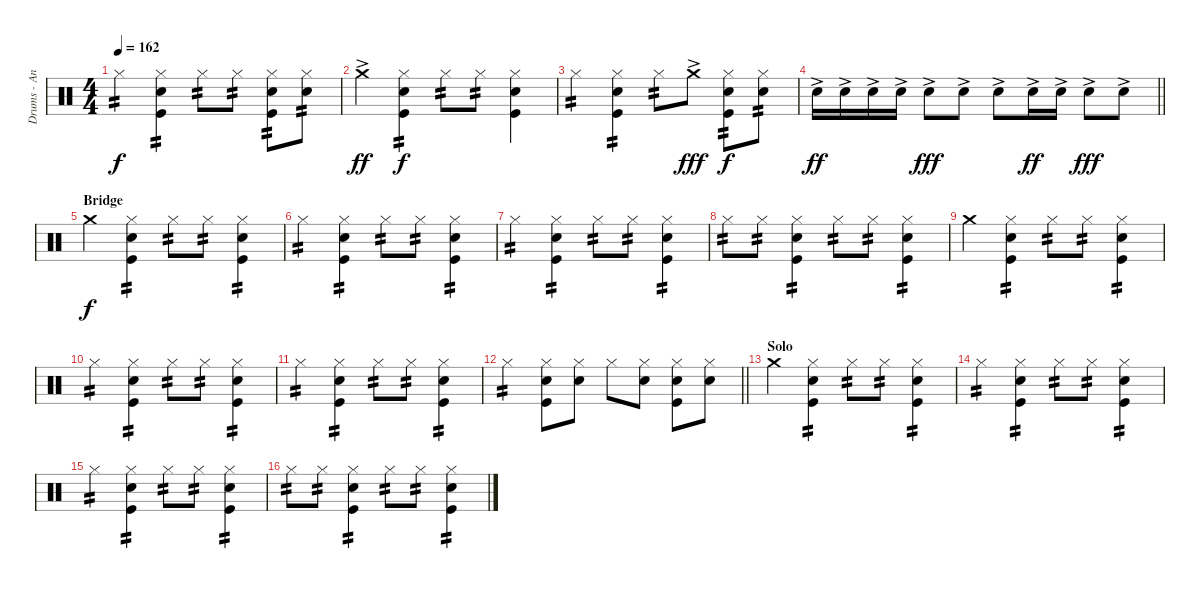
\track ("Drums - Andriushkin" "Drums - An") {instrument percussion}
\staff {score}
\articulation defaults
\ts (4 4)
\tempo 162
\clef neutral
\ks c "Hi-Hat (closed)".4{tp 2 dy f}
("Hi-Hat (closed)" "Electric Snare (hit)" "Kick (hit)").4{tp 2} "Hi-Hat (closed)".8{tp 2} "Hi-Hat (closed)".8{tp 2} ("Hi-Hat (closed)" "Electric Snare (hit)" "Kick (hit)").8{tp 2} ("Hi-Hat (closed)" "Electric Snare (hit)").8{tp 2} |
"Crash medium (hit)"{ac}.4{dy ff} ("Hi-Hat (closed)" "Electric Snare (hit)" "Kick (hit)").4{tp 2 dy f} "Hi-Hat (closed)".8{tp 2} "Hi-Hat (closed)".8{tp 2} ("Hi-Hat (closed)" "Electric Snare (hit)" "Kick (hit)").4 |
"Hi-Hat (closed)".4{tp 2} ("Hi-Hat (closed)" "Electric Snare (hit)" "Kick (hit)").4{tp 2} "Hi-Hat (closed)".8{tp 2} "Crash medium (hit)"{ac}.8{dy fff} ("Hi-Hat (closed)" "Electric Snare (hit)" "Kick (hit)").8{tp 2 dy f} ("Hi-Hat (closed)" "Electric Snare (hit)").8{tp 2} |
\barLineRight lightlight "Electric Snare (hit)"{ac}.16{dy ff} "Electric Snare (hit)"{ac}.16 "Electric Snare (hit)"{ac}.16 "Electric Snare (hit)"{ac}.16 "Electric Snare (hit)"{ac}.8{dy fff} "Electric Snare (hit)"{ac}.8 "Electric Snare (hit)"{ac}.8 "Electric Snare (hit)"{ac}.16{dy ff} "Electric Snare (hit)"{ac}.16 "Electric Snare (hit)"{ac}.8{dy fff} "Electric Snare (hit)"{ac}.8
|
\section ("" "Bridge")
"Crash medium (hit)".4{dy f} ("Hi-Hat (closed)" "Electric Snare (hit)" "Kick (hit)").4{tp 2} "Hi-Hat (closed)".8{tp 2} "Hi-Hat (closed)".8{tp 2} ("Hi-Hat (closed)" "Electric Snare (hit)" "Kick (hit)").4{tp 2} |
"Hi-Hat (closed)".4{tp 2} ("Hi-Hat (closed)" "Electric Snare (hit)" "Kick (hit)").4{tp 2} "Hi-Hat (closed)".8{tp 2} "Hi-Hat (closed)".8{tp 2} ("Hi-Hat (closed)" "Electric Snare (hit)" "Kick (hit)").4{tp 2} |
"Hi-Hat (closed)".4{tp 2} ("Hi-Hat (closed)" "Electric Snare (hit)" "Kick (hit)").4{tp 2} "Hi-Hat (closed)".8{tp 2} "Hi-Hat (closed)".8{tp 2} ("Hi-Hat (closed)" "Electric Snare (hit)" "Kick (hit)").4{tp 2} |
"Hi-Hat (closed)".8{tp 2} "Hi-Hat (closed)".8{tp 2} ("Hi-Hat (closed)" "Electric Snare (hit)" "Kick (hit)").4{tp 2} "Hi-Hat (closed)".8{tp 2} "Hi-Hat (closed)".8{tp 2} ("Hi-Hat (closed)" "Electric Snare (hit)" "Kick (hit)").4{tp 2} |
"Crash medium (hit)".4 ("Hi-Hat (closed)" "Electric Snare (hit)" "Kick (hit)").4{tp 2} "Hi-Hat (closed)".8{tp 2} "Hi-Hat (closed)".8{tp 2} ("Hi-Hat (closed)" "Electric Snare (hit)" "Kick (hit)").4{tp 2} |
"Hi-Hat (closed)".4{tp 2} ("Hi-Hat (closed)" "Electric Snare (hit)" "Kick (hit)").4{tp 2} "Hi-Hat (closed)".8{tp 2} "Hi-Hat (closed)".8{tp 2} ("Hi-Hat (closed)" "Electric Snare (hit)" "Kick (hit)").4{tp 2} |
"Hi-Hat (closed)".4{tp 2} ("Hi-Hat (closed)" "Electric Snare (hit)" "Kick (hit)").4{tp 2} "Hi-Hat (closed)".8{tp 2} "Hi-Hat (closed)".8{tp 2} ("Hi-Hat (closed)" "Electric Snare (hit)" "Kick (hit)").4{tp 2} |
\barLineRight lightlight "Hi-Hat (closed)".4{tp 2}
("Hi-Hat (closed)" "Electric Snare (hit)" "Kick (hit)").8 ("Hi-Hat (closed)" "Electric Snare (hit)").8 "Hi-Hat (closed)".8 ("Hi-Hat (closed)" "Electric Snare (hit)").8 ("Hi-Hat (closed)" "Electric Snare (hit)" "Kick (hit)").8 ("Hi-Hat (closed)" "Electric Snare (hit)").8 |
\section ("" "Solo")
"Crash medium (hit)".4 ("Hi-Hat (closed)" "Electric Snare (hit)" "Kick (hit)").4{tp 2} "Hi-Hat (closed)".8{tp 2} "Hi-Hat (closed)".8{tp 2} ("Hi-Hat (closed)" "Electric Snare (hit)" "Kick (hit)").4{tp 2} |
"Hi-Hat (closed)".4{tp 2} ("Hi-Hat (closed)" "Electric Snare (hit)" "Kick (hit)").4{tp 2} "Hi-Hat (closed)".8{tp 2} "Hi-Hat (closed)".8{tp 2} ("Hi-Hat (closed)" "Electric Snare (hit)" "Kick (hit)").4{tp 2} |
"Hi-Hat (closed)".4{tp 2} ("Hi-Hat (closed)" "Electric Snare (hit)" "Kick (hit)").4{tp 2} "Hi-Hat (closed)".8{tp 2} "Hi-Hat (closed)".8{tp 2} ("Hi-Hat (closed)" "Electric Snare (hit)" "Kick (hit)").4{tp 2} |
"Hi-Hat (closed)".8{tp 2} "Hi-Hat (closed)".8{tp 2} ("Hi-Hat (closed)" "Electric Snare (hit)" "Kick (hit)").4{tp 2} "Hi-Hat (closed)".8{tp 2} "Hi-Hat (closed)".8{tp 2} ("Hi-Hat (closed)" "Electric Snare (hit)" "Kick (hit)").4{tp 2}
